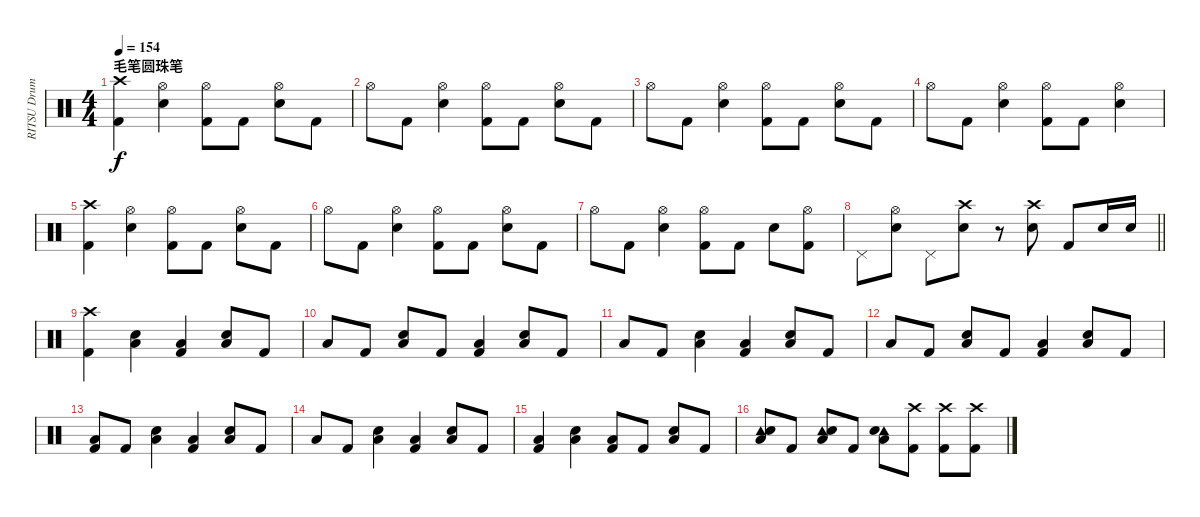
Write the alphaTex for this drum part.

\track ("RITSU Drums" "RITSU Drum") {instrument percussion}
\staff {score}
\articulation defaults
\ts (4 4)
\section ("" "毛笔圆珠笔")
\tempo 154
\clef neutral
\ks c
("Crash high (hit)" "Kick (hit) 2").4{dy f} ("Hi-Hat (open)" "Electric Snare (hit)").4 ("Hi-Hat (open)" "Kick (hit) 2").8 "Kick (hit) 2".8 ("Hi-Hat (open)" "Electric Snare (hit)").8 "Kick (hit) 2".8 |
"Hi-Hat (open)".8 "Kick (hit) 2".8 ("Hi-Hat (open)" "Electric Snare (hit)").4 ("Hi-Hat (open)" "Kick (hit) 2").8 "Kick (hit) 2".8 ("Hi-Hat (open)" "Electric Snare (hit)").8 "Kick (hit) 2".8 |
"Hi-Hat (open)".8 "Kick (hit) 2".8 ("Hi-Hat (open)" "Electric Snare (hit)").4 ("Hi-Hat (open)" "Kick (hit) 2").8 "Kick (hit) 2".8 ("Hi-Hat (open)" "Electric Snare (hit)").8 "Kick (hit) 2".8 |
"Hi-Hat (open)".8 "Kick (hit) 2".8 ("Hi-Hat (open)" "Electric Snare (hit)").4 ("Hi-Hat (open)" "Kick (hit) 2").8 "Kick (hit) 2".8 ("Hi-Hat (open)" "Electric Snare (hit)").4 |
("Crash high (hit)" "Kick (hit) 2").4 ("Hi-Hat (open)" "Electric Snare (hit)").4 ("Hi-Hat (open)" "Kick (hit) 2").8 "Kick (hit) 2".8 ("Hi-Hat (open)" "Electric Snare (hit)").8 "Kick (hit) 2".8 |
"Hi-Hat (open)".8 "Kick (hit) 2".8 ("Hi-Hat (open)" "Electric Snare (hit)").4 ("Hi-Hat (open)" "Kick (hit) 2").8 "Kick (hit) 2".8 ("Hi-Hat (open)" "Electric Snare (hit)").8 "Kick (hit) 2".8 |
"Hi-Hat (open)".8 "Kick (hit) 2".8 ("Hi-Hat (open)" "Electric Snare (hit)").4 ("Hi-Hat (open)" "Kick (hit) 2").8 "Kick (hit) 2".8 "Electric Snare (hit)".8 ("Hi-Hat (open)" "Kick (hit) 2").8 |
\barLineRight lightlight "Pedal Hi-Hat (hit)".8
("Hi-Hat (open)" "Electric Snare (hit)").8 "Pedal Hi-Hat (hit)".8 ("Crash high (hit)" "Electric Snare (hit)").8 r.8{volume 0} ("Crash high (hit)" "Electric Snare (hit)").8{volume 16} "Kick (hit) 2".8 "Electric Snare (hit)".16 "Electric Snare (hit)".16 |
("Crash high (hit)" "Kick (hit) 2").4 ("Electric Snare (hit)" "Low Floor Tom (hit)").4 ("Low Floor Tom (hit)" "Kick (hit) 2").4 ("Electric Snare (hit)" "Low Floor Tom (hit)").8 "Kick (hit) 2".8 |
"Low Floor Tom (hit)".8 "Kick (hit) 2".8 ("Electric Snare (hit)" "Low Floor Tom (hit)").8 "Kick (hit) 2".8 ("Low Floor Tom (hit)" "Kick (hit) 2").4 ("Electric Snare (hit)" "Low Floor Tom (hit)").8 "Kick (hit) 2".8 |
"Low Floor Tom (hit)".8 "Kick (hit) 2".8 ("Electric Snare (hit)" "Low Floor Tom (hit)").4 ("Low Floor Tom (hit)" "Kick (hit) 2").4 ("Electric Snare (hit)" "Low Floor Tom (hit)").8 "Kick (hit) 2".8 |
"Low Floor Tom (hit)".8 "Kick (hit) 2".8 ("Electric Snare (hit)" "Low Floor Tom (hit)").8 "Kick (hit) 2".8 ("Low Floor Tom (hit)" "Kick (hit) 2").4 ("Electric Snare (hit)" "Low Floor Tom (hit)").8 "Kick (hit) 2".8 |
("Low Floor Tom (hit)" "Kick (hit) 2").8 "Kick (hit) 2".8 ("Electric Snare (hit)" "Low Floor Tom (hit)").4 ("Low Floor Tom (hit)" "Kick (hit) 2").4 ("Electric Snare (hit)" "Low Floor Tom (hit)").8 "Kick (hit) 2".8 |
"Low Floor Tom (hit)".8 "Kick (hit) 2".8 ("Electric Snare (hit)" "Low Floor Tom (hit)").4 ("Low Floor Tom (hit)" "Kick (hit) 2").4 ("Electric Snare (hit)" "Low Floor Tom (hit)").8 "Kick (hit) 2".8 |
("Low Floor Tom (hit)" "Kick (hit) 2").4 ("Electric Snare (hit)" "Low Floor Tom (hit)").4 ("Low Floor Tom (hit)" "Kick (hit) 2").8 "Kick (hit) 2".8 ("Electric Snare (hit)" "Low Floor Tom (hit)").8 "Kick (hit) 2".8 |
("Tambourine (hit)" "Electric Snare (hit)" "Low Floor Tom (hit)").8 "Kick (hit) 2".8 ("Tambourine (hit)" "Electric Snare (hit)" "Low Floor Tom (hit)").8 "Kick (hit) 2".8 ("Tambourine (hit)" "Electric Snare (hit)" "Low Floor Tom (hit)").8 ("Crash high (hit)" "Kick (hit) 2").8 ("Crash high (hit)" "Kick (hit) 2").8 ("Crash high (hit)" "Kick (hit) 2").8
